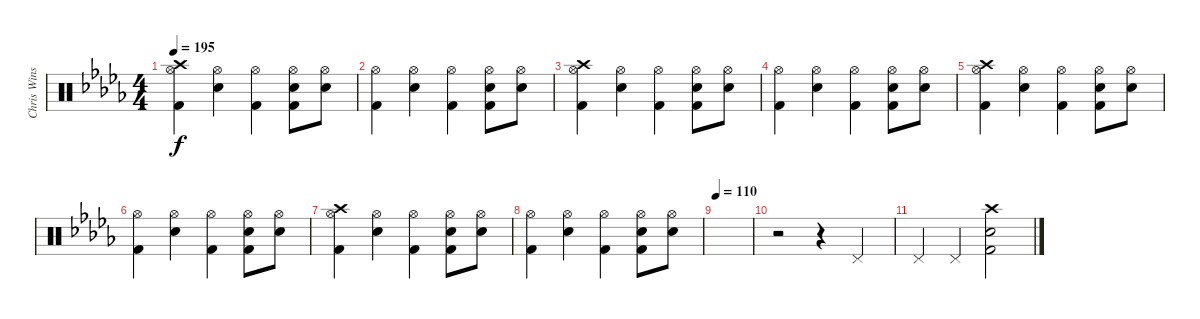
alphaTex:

\track ("Chris Winship (Drums)" "Chris Wins") {instrument percussion}
\staff {score}
\articulation defaults
\ts (4 4)
\tempo 195
\clef neutral
\ks bbminor
("Crash high (hit)" "Hi-Hat (open)" "Kick (hit) 2").4{dy f} ("Hi-Hat (open)" "Electric Snare (hit)").4 ("Hi-Hat (open)" "Kick (hit) 2").4 ("Hi-Hat (open)" "Electric Snare (hit)" "Kick (hit) 2").8 ("Hi-Hat (open)" "Electric Snare (hit)").8 |
("Hi-Hat (open)" "Kick (hit) 2").4 ("Hi-Hat (open)" "Electric Snare (hit)").4 ("Hi-Hat (open)" "Kick (hit) 2").4 ("Hi-Hat (open)" "Electric Snare (hit)" "Kick (hit) 2").8 ("Hi-Hat (open)" "Electric Snare (hit)").8 |
("Crash high (hit)" "Hi-Hat (open)" "Kick (hit) 2").4 ("Hi-Hat (open)" "Electric Snare (hit)").4 ("Hi-Hat (open)" "Kick (hit) 2").4 ("Hi-Hat (open)" "Electric Snare (hit)" "Kick (hit) 2").8 ("Hi-Hat (open)" "Electric Snare (hit)").8 |
("Hi-Hat (open)" "Kick (hit) 2").4 ("Hi-Hat (open)" "Electric Snare (hit)").4 ("Hi-Hat (open)" "Kick (hit) 2").4 ("Hi-Hat (open)" "Electric Snare (hit)" "Kick (hit) 2").8 ("Hi-Hat (open)" "Electric Snare (hit)").8 |
("Crash high (hit)" "Hi-Hat (open)" "Kick (hit) 2").4 ("Hi-Hat (open)" "Electric Snare (hit)").4 ("Hi-Hat (open)" "Kick (hit) 2").4 ("Hi-Hat (open)" "Electric Snare (hit)" "Kick (hit) 2").8 ("Hi-Hat (open)" "Electric Snare (hit)").8 |
("Hi-Hat (open)" "Kick (hit) 2").4 ("Hi-Hat (open)" "Electric Snare (hit)").4 ("Hi-Hat (open)" "Kick (hit) 2").4 ("Hi-Hat (open)" "Electric Snare (hit)" "Kick (hit) 2").8 ("Hi-Hat (open)" "Electric Snare (hit)").8 |
("Crash high (hit)" "Hi-Hat (open)" "Kick (hit) 2").4 ("Hi-Hat (open)" "Electric Snare (hit)").4 ("Hi-Hat (open)" "Kick (hit) 2").4 ("Hi-Hat (open)" "Electric Snare (hit)" "Kick (hit) 2").8 ("Hi-Hat (open)" "Electric Snare (hit)").8 |
("Hi-Hat (open)" "Kick (hit) 2").4 ("Hi-Hat (open)" "Electric Snare (hit)").4 ("Hi-Hat (open)" "Kick (hit) 2").4 ("Hi-Hat (open)" "Electric Snare (hit)" "Kick (hit) 2").8 ("Hi-Hat (open)" "Electric Snare (hit)").8 |
\tempo 110
|
r.2 r.4 "Pedal Hi-Hat (hit)".4 |
"Pedal Hi-Hat (hit)".4 "Pedal Hi-Hat (hit)".4 ("Kick (hit) 2" "Electric Snare (hit)" "Crash high (hit)").2
